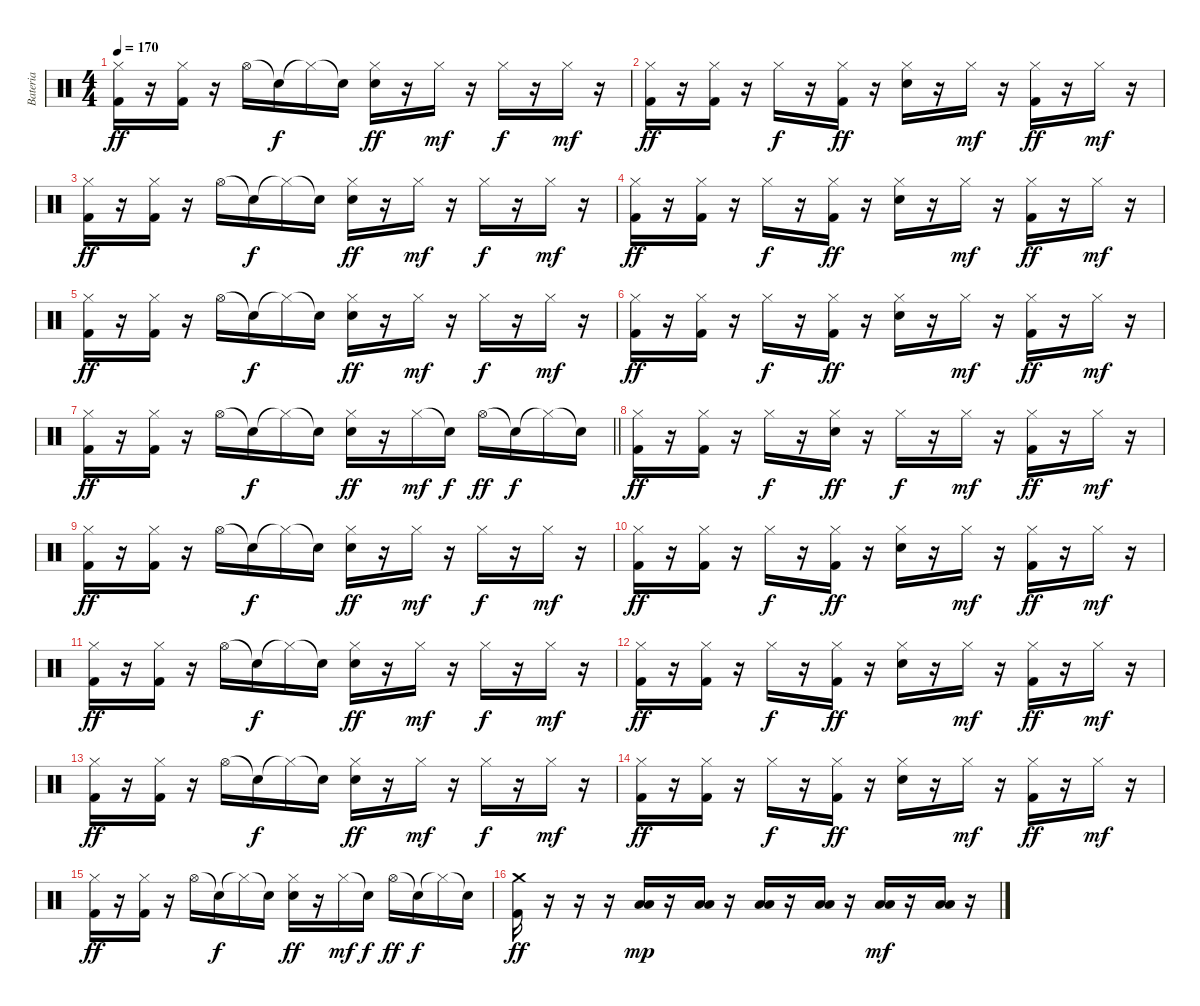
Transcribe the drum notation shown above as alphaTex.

\track ("Bateria" "Bateria") {instrument percussion}
\staff {score}
\articulation defaults
\ts (4 4)
\tempo 170
\clef neutral
\ks c
("Hi-Hat (closed)" "Kick (hit) 2").16{dy ff} r.16 ("Hi-Hat (closed)" "Kick (hit) 2").16 r.16 "Hi-Hat (open)".16 "Snare (hit)"{t}.16{dy f} "Hi-Hat (closed)"{t}.16 "Snare (hit)"{t}.16 ("Hi-Hat (closed)" "Electric Snare (hit)").16{dy ff} r.16 "Hi-Hat (closed)".16{dy mf} r.16 "Hi-Hat (closed)".16{dy f} r.16 "Hi-Hat (closed)".16{dy mf} r.16 |
("Hi-Hat (closed)" "Kick (hit) 2").16{dy ff} r.16 ("Hi-Hat (closed)" "Kick (hit) 2").16 r.16 "Hi-Hat (closed)".16{dy f} r.16 ("Hi-Hat (closed)" "Kick (hit) 2").16{dy ff} r.16 ("Hi-Hat (closed)" "Electric Snare (hit)").16 r.16 "Hi-Hat (closed)".16{dy mf} r.16 ("Hi-Hat (closed)" "Kick (hit) 2").16{dy ff} r.16 "Hi-Hat (closed)".16{dy mf} r.16 |
("Hi-Hat (closed)" "Kick (hit) 2").16{dy ff} r.16 ("Hi-Hat (closed)" "Kick (hit) 2").16 r.16 "Hi-Hat (open)".16 "Snare (hit)"{t}.16{dy f} "Hi-Hat (closed)"{t}.16 "Snare (hit)"{t}.16 ("Hi-Hat (closed)" "Electric Snare (hit)").16{dy ff} r.16 "Hi-Hat (closed)".16{dy mf} r.16 "Hi-Hat (closed)".16{dy f} r.16 "Hi-Hat (closed)".16{dy mf} r.16 |
("Hi-Hat (closed)" "Kick (hit) 2").16{dy ff} r.16 ("Hi-Hat (closed)" "Kick (hit) 2").16 r.16 "Hi-Hat (closed)".16{dy f} r.16 ("Hi-Hat (closed)" "Kick (hit) 2").16{dy ff} r.16 ("Hi-Hat (closed)" "Electric Snare (hit)").16 r.16 "Hi-Hat (closed)".16{dy mf} r.16 ("Hi-Hat (closed)" "Kick (hit) 2").16{dy ff} r.16 "Hi-Hat (closed)".16{dy mf} r.16 |
("Hi-Hat (closed)" "Kick (hit) 2").16{dy ff} r.16 ("Hi-Hat (closed)" "Kick (hit) 2").16 r.16 "Hi-Hat (open)".16 "Snare (hit)"{t}.16{dy f} "Hi-Hat (closed)"{t}.16 "Snare (hit)"{t}.16 ("Hi-Hat (closed)" "Electric Snare (hit)").16{dy ff} r.16 "Hi-Hat (closed)".16{dy mf} r.16 "Hi-Hat (closed)".16{dy f} r.16 "Hi-Hat (closed)".16{dy mf} r.16 |
("Hi-Hat (closed)" "Kick (hit) 2").16{dy ff} r.16 ("Hi-Hat (closed)" "Kick (hit) 2").16 r.16 "Hi-Hat (closed)".16{dy f} r.16 ("Hi-Hat (closed)" "Kick (hit) 2").16{dy ff} r.16 ("Hi-Hat (closed)" "Electric Snare (hit)").16 r.16 "Hi-Hat (closed)".16{dy mf} r.16 ("Hi-Hat (closed)" "Kick (hit) 2").16{dy ff} r.16 "Hi-Hat (closed)".16{dy mf} r.16 |
\barLineRight lightlight
("Hi-Hat (closed)" "Kick (hit) 2").16{dy ff} r.16 ("Hi-Hat (closed)" "Kick (hit) 2").16 r.16 "Hi-Hat (open)".16 "Snare (hit)"{t}.16{dy f} "Hi-Hat (closed)"{t}.16 "Snare (hit)"{t}.16 ("Hi-Hat (closed)" "Electric Snare (hit)").16{dy ff} r.16 "Hi-Hat (closed)".16{dy mf} "Snare (hit)"{t}.16{dy f} "Hi-Hat (open)".16{dy ff} "Snare (hit)"{t}.16{dy f} "Hi-Hat (closed)"{t}.16 "Snare (hit)"{t}.16 |
("Hi-Hat (closed)" "Kick (hit) 2").16{dy ff} r.16 ("Hi-Hat (closed)" "Kick (hit) 2").16 r.16 "Hi-Hat (closed)".16{dy f} r.16 ("Hi-Hat (closed)" "Electric Snare (hit)").16{dy ff} r.16 "Hi-Hat (closed)".16{dy f} r.16 "Hi-Hat (closed)".16{dy mf} r.16 ("Hi-Hat (closed)" "Kick (hit) 2").16{dy ff} r.16 "Hi-Hat (closed)".16{dy mf} r.16 |
("Hi-Hat (closed)" "Kick (hit) 2").16{dy ff} r.16 ("Hi-Hat (closed)" "Kick (hit) 2").16 r.16 "Hi-Hat (open)".16 "Snare (hit)"{t}.16{dy f} "Hi-Hat (closed)"{t}.16 "Snare (hit)"{t}.16 ("Hi-Hat (closed)" "Electric Snare (hit)").16{dy ff} r.16 "Hi-Hat (closed)".16{dy mf} r.16 "Hi-Hat (closed)".16{dy f} r.16 "Hi-Hat (closed)".16{dy mf} r.16 |
("Hi-Hat (closed)" "Kick (hit) 2").16{dy ff} r.16 ("Hi-Hat (closed)" "Kick (hit) 2").16 r.16 "Hi-Hat (closed)".16{dy f} r.16 ("Hi-Hat (closed)" "Kick (hit) 2").16{dy ff} r.16 ("Hi-Hat (closed)" "Electric Snare (hit)").16 r.16 "Hi-Hat (closed)".16{dy mf} r.16 ("Hi-Hat (closed)" "Kick (hit) 2").16{dy ff} r.16 "Hi-Hat (closed)".16{dy mf} r.16 |
("Hi-Hat (closed)" "Kick (hit) 2").16{dy ff} r.16 ("Hi-Hat (closed)" "Kick (hit) 2").16 r.16 "Hi-Hat (open)".16 "Snare (hit)"{t}.16{dy f} "Hi-Hat (closed)"{t}.16 "Snare (hit)"{t}.16 ("Hi-Hat (closed)" "Electric Snare (hit)").16{dy ff} r.16 "Hi-Hat (closed)".16{dy mf} r.16 "Hi-Hat (closed)".16{dy f} r.16 "Hi-Hat (closed)".16{dy mf} r.16 |
("Hi-Hat (closed)" "Kick (hit) 2").16{dy ff} r.16 ("Hi-Hat (closed)" "Kick (hit) 2").16 r.16 "Hi-Hat (closed)".16{dy f} r.16 ("Hi-Hat (closed)" "Kick (hit) 2").16{dy ff} r.16 ("Hi-Hat (closed)" "Electric Snare (hit)").16 r.16 "Hi-Hat (closed)".16{dy mf} r.16 ("Hi-Hat (closed)" "Kick (hit) 2").16{dy ff} r.16 "Hi-Hat (closed)".16{dy mf} r.16 |
("Hi-Hat (closed)" "Kick (hit) 2").16{dy ff} r.16 ("Hi-Hat (closed)" "Kick (hit) 2").16 r.16 "Hi-Hat (open)".16 "Snare (hit)"{t}.16{dy f} "Hi-Hat (closed)"{t}.16 "Snare (hit)"{t}.16 ("Hi-Hat (closed)" "Electric Snare (hit)").16{dy ff} r.16 "Hi-Hat (closed)".16{dy mf} r.16 "Hi-Hat (closed)".16{dy f} r.16 "Hi-Hat (closed)".16{dy mf} r.16 |
("Hi-Hat (closed)" "Kick (hit) 2").16{dy ff} r.16 ("Hi-Hat (closed)" "Kick (hit) 2").16 r.16 "Hi-Hat (closed)".16{dy f} r.16 ("Hi-Hat (closed)" "Kick (hit) 2").16{dy ff} r.16 ("Hi-Hat (closed)" "Electric Snare (hit)").16 r.16 "Hi-Hat (closed)".16{dy mf} r.16 ("Hi-Hat (closed)" "Kick (hit) 2").16{dy ff} r.16 "Hi-Hat (closed)".16{dy mf} r.16 |
("Hi-Hat (closed)" "Kick (hit) 2").16{dy ff} r.16 ("Hi-Hat (closed)" "Kick (hit) 2").16 r.16 "Hi-Hat (open)".16 "Snare (hit)"{t}.16{dy f} "Hi-Hat (closed)"{t}.16 "Snare (hit)"{t}.16 ("Hi-Hat (closed)" "Electric Snare (hit)").16{dy ff} r.16 "Hi-Hat (closed)".16{dy mf} "Snare (hit)"{t}.16{dy f} "Hi-Hat (open)".16{dy ff} "Snare (hit)"{t}.16{dy f} "Hi-Hat (closed)"{t}.16 "Snare (hit)"{t}.16 |
("Crash medium (hit)" "Kick (hit) 2").16{dy ff} r.16 r.16 r.16 ("Low Tom (hit)" "Low Floor Tom (hit)").16{dy mp} r.16 ("Low Tom (hit)" "Low Floor Tom (hit)").16 r.16 ("Low Tom (hit)" "Low Floor Tom (hit)").16 r.16 ("Low Tom (hit)" "Low Floor Tom (hit)").16 r.16 ("Low Tom (hit)" "Low Floor Tom (hit)").16{dy mf} r.16 ("Low Tom (hit)" "Low Floor Tom (hit)").16 r.16
